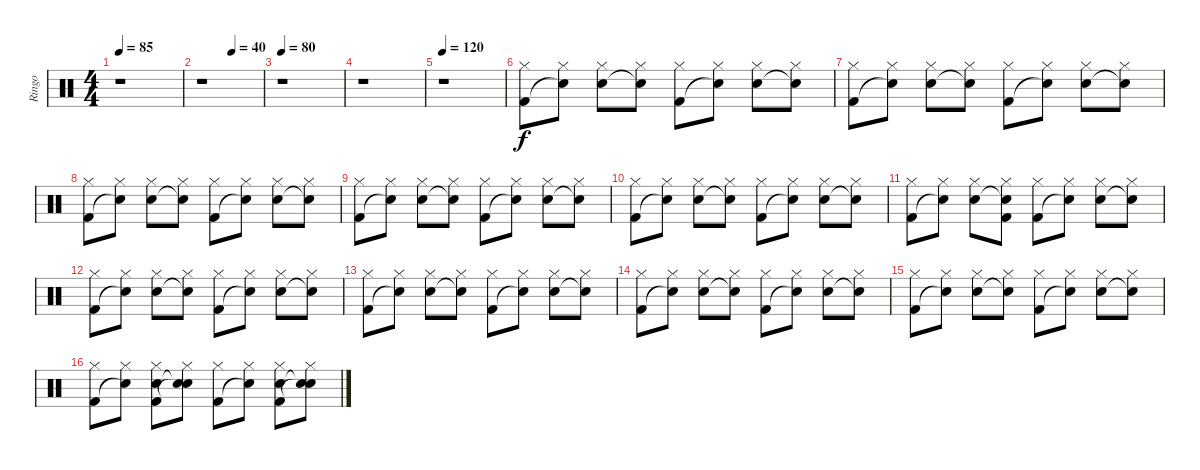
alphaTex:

\track ("Ringo" "Ringo") {instrument percussion}
\staff {score}
\articulation defaults
\ts (4 4)
\tempo 85
\clef neutral
\ks c
r.1{dy f} |
\tempo (40 0.5)
r.1 |
\tempo 80
r.1 |
r.1 |
\tempo 120
r.1 |
("Hi-Hat (closed)" "Kick (hit) 2").8 ("Hi-Hat (closed)" "Snare (hit)"{t}).8 ("Hi-Hat (closed)" "Snare (hit) 2").8 ("Hi-Hat (closed)" "Snare (hit)"{t}).8 ("Hi-Hat (closed)" "Kick (hit) 2").8 ("Hi-Hat (closed)" "Snare (hit)"{t}).8 ("Hi-Hat (closed)" "Snare (hit) 2").8 ("Hi-Hat (closed)" "Snare (hit)"{t}).8 |
("Hi-Hat (closed)" "Kick (hit) 2").8 ("Hi-Hat (closed)" "Snare (hit)"{t}).8 ("Hi-Hat (closed)" "Snare (hit) 2").8 ("Hi-Hat (closed)" "Snare (hit)"{t}).8 ("Hi-Hat (closed)" "Kick (hit) 2").8 ("Hi-Hat (closed)" "Snare (hit)"{t}).8 ("Hi-Hat (closed)" "Snare (hit) 2").8 ("Hi-Hat (closed)" "Snare (hit)"{t}).8 |
("Hi-Hat (closed)" "Kick (hit) 2").8 ("Hi-Hat (closed)" "Snare (hit)"{t}).8 ("Hi-Hat (closed)" "Snare (hit) 2").8 ("Hi-Hat (closed)" "Snare (hit)"{t}).8 ("Hi-Hat (closed)" "Kick (hit) 2").8 ("Hi-Hat (closed)" "Snare (hit)"{t}).8 ("Hi-Hat (closed)" "Snare (hit) 2").8 ("Hi-Hat (closed)" "Snare (hit)"{t}).8 |
("Hi-Hat (closed)" "Kick (hit) 2").8 ("Hi-Hat (closed)" "Snare (hit)"{t}).8 ("Hi-Hat (closed)" "Snare (hit) 2").8 ("Hi-Hat (closed)" "Snare (hit)"{t}).8 ("Hi-Hat (closed)" "Kick (hit) 2").8 ("Hi-Hat (closed)" "Snare (hit)"{t}).8 ("Hi-Hat (closed)" "Snare (hit) 2").8 ("Hi-Hat (closed)" "Snare (hit)"{t}).8 |
("Hi-Hat (closed)" "Kick (hit) 2").8 ("Hi-Hat (closed)" "Snare (hit)"{t}).8 ("Hi-Hat (closed)" "Snare (hit) 2").8 ("Hi-Hat (closed)" "Snare (hit)"{t}).8 ("Hi-Hat (closed)" "Kick (hit) 2").8 ("Hi-Hat (closed)" "Snare (hit)"{t}).8 ("Hi-Hat (closed)" "Snare (hit) 2").8 ("Hi-Hat (closed)" "Snare (hit)"{t}).8 |
("Hi-Hat (closed)" "Kick (hit) 2").8 ("Hi-Hat (closed)" "Snare (hit)"{t}).8 ("Hi-Hat (closed)" "Snare (hit) 2").8 ("Hi-Hat (closed)" "Snare (hit)"{t} "Kick (hit) 2").8 ("Hi-Hat (closed)" "Kick (hit) 2").8 ("Hi-Hat (closed)" "Snare (hit)"{t}).8 ("Hi-Hat (closed)" "Snare (hit) 2").8 ("Hi-Hat (closed)" "Snare (hit)"{t}).8 |
("Hi-Hat (closed)" "Kick (hit) 2").8 ("Hi-Hat (closed)" "Snare (hit)"{t}).8 ("Hi-Hat (closed)" "Snare (hit) 2").8 ("Hi-Hat (closed)" "Snare (hit)"{t}).8 ("Hi-Hat (closed)" "Kick (hit) 2").8 ("Hi-Hat (closed)" "Snare (hit)"{t}).8 ("Hi-Hat (closed)" "Snare (hit) 2").8 ("Hi-Hat (closed)" "Snare (hit)"{t}).8 |
("Hi-Hat (closed)" "Kick (hit) 2").8 ("Hi-Hat (closed)" "Snare (hit)"{t}).8 ("Hi-Hat (closed)" "Snare (hit) 2").8 ("Hi-Hat (closed)" "Snare (hit)"{t}).8 ("Hi-Hat (closed)" "Kick (hit) 2").8 ("Hi-Hat (closed)" "Snare (hit)"{t}).8 ("Hi-Hat (closed)" "Snare (hit) 2").8 ("Hi-Hat (closed)" "Snare (hit)"{t}).8 |
("Hi-Hat (closed)" "Kick (hit) 2").8 ("Hi-Hat (closed)" "Snare (hit)"{t}).8 ("Hi-Hat (closed)" "Snare (hit) 2").8 ("Hi-Hat (closed)" "Snare (hit)"{t}).8 ("Hi-Hat (closed)" "Kick (hit) 2").8 ("Hi-Hat (closed)" "Snare (hit)"{t}).8 ("Hi-Hat (closed)" "Snare (hit) 2").8 ("Hi-Hat (closed)" "Snare (hit)"{t}).8 |
("Hi-Hat (closed)" "Kick (hit) 2").8 ("Hi-Hat (closed)" "Snare (hit)"{t}).8 ("Hi-Hat (closed)" "Snare (hit) 2").8 ("Hi-Hat (closed)" "Snare (hit)"{t}).8 ("Hi-Hat (closed)" "Kick (hit) 2").8 ("Hi-Hat (closed)" "Snare (hit)"{t}).8 ("Hi-Hat (closed)" "Snare (hit) 2").8 ("Hi-Hat (closed)" "Snare (hit)"{t}).8 |
("Hi-Hat (closed)" "Kick (hit) 2").8 ("Hi-Hat (closed)" "Snare (hit)"{t}).8 ("Hi-Hat (closed)" "Snare (hit) 2" "Kick (hit) 2").8 ("Hi-Hat (closed)" "Snare (hit)"{t} "Snare (hit)"{t}).8 ("Hi-Hat (closed)" "Kick (hit) 2").8 ("Hi-Hat (closed)" "Snare (hit)"{t}).8 ("Hi-Hat (closed)" "Snare (hit) 2" "Kick (hit) 2").8 ("Hi-Hat (closed)" "Snare (hit)"{t} "Snare (hit)"{t}).8
